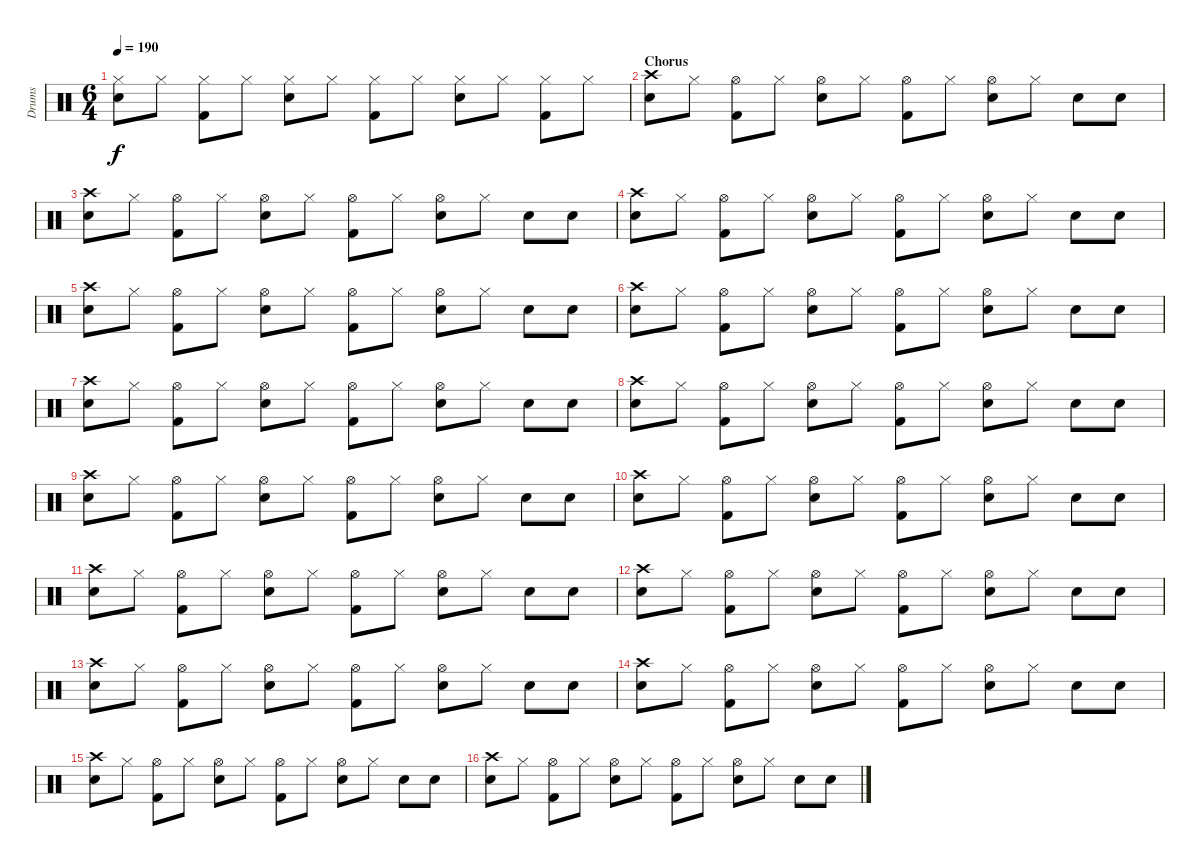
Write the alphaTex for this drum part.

\track ("Drums" "Drums") {instrument percussion}
\staff {score}
\articulation defaults
\ts (6 4)
\tempo 190
\clef neutral
\ks c
("Hi-Hat (closed)" "Snare (hit) 2").8{dy f} "Hi-Hat (closed)".8 ("Hi-Hat (closed)" "Kick (hit) 2").8 "Hi-Hat (closed)".8 ("Hi-Hat (closed)" "Snare (hit) 2").8 "Hi-Hat (closed)".8 ("Hi-Hat (closed)" "Kick (hit) 2").8 "Hi-Hat (closed)".8 ("Hi-Hat (closed)" "Snare (hit) 2").8 "Hi-Hat (closed)".8 ("Hi-Hat (closed)" "Kick (hit) 2").8 "Hi-Hat (closed)".8 |
\section ("" "Chorus")
("Crash high (hit)" "Snare (hit) 2").8 "Hi-Hat (closed)".8 ("Hi-Hat (open)" "Kick (hit) 2").8 "Hi-Hat (closed)".8 ("Hi-Hat (open)" "Snare (hit) 2").8 "Hi-Hat (closed)".8 ("Hi-Hat (open)" "Kick (hit) 2").8 "Hi-Hat (closed)".8 ("Hi-Hat (open)" "Snare (hit) 2").8 "Hi-Hat (closed)".8 "Snare (hit) 2".8 "Snare (hit) 2".8 |
("Crash high (hit)" "Snare (hit) 2").8 "Hi-Hat (closed)".8 ("Hi-Hat (open)" "Kick (hit) 2").8 "Hi-Hat (closed)".8 ("Hi-Hat (open)" "Snare (hit) 2").8 "Hi-Hat (closed)".8 ("Hi-Hat (open)" "Kick (hit) 2").8 "Hi-Hat (closed)".8 ("Hi-Hat (open)" "Snare (hit) 2").8 "Hi-Hat (closed)".8 "Snare (hit) 2".8 "Snare (hit) 2".8 |
("Crash high (hit)" "Snare (hit) 2").8 "Hi-Hat (closed)".8 ("Hi-Hat (open)" "Kick (hit) 2").8 "Hi-Hat (closed)".8 ("Hi-Hat (open)" "Snare (hit) 2").8 "Hi-Hat (closed)".8 ("Hi-Hat (open)" "Kick (hit) 2").8 "Hi-Hat (closed)".8 ("Hi-Hat (open)" "Snare (hit) 2").8 "Hi-Hat (closed)".8 "Snare (hit) 2".8 "Snare (hit) 2".8 |
("Crash high (hit)" "Snare (hit) 2").8 "Hi-Hat (closed)".8 ("Hi-Hat (open)" "Kick (hit) 2").8 "Hi-Hat (closed)".8 ("Hi-Hat (open)" "Snare (hit) 2").8 "Hi-Hat (closed)".8 ("Hi-Hat (open)" "Kick (hit) 2").8 "Hi-Hat (closed)".8 ("Hi-Hat (open)" "Snare (hit) 2").8 "Hi-Hat (closed)".8 "Snare (hit) 2".8 "Snare (hit) 2".8 |
("Crash high (hit)" "Snare (hit) 2").8 "Hi-Hat (closed)".8 ("Hi-Hat (open)" "Kick (hit) 2").8 "Hi-Hat (closed)".8 ("Hi-Hat (open)" "Snare (hit) 2").8 "Hi-Hat (closed)".8 ("Hi-Hat (open)" "Kick (hit) 2").8 "Hi-Hat (closed)".8 ("Hi-Hat (open)" "Snare (hit) 2").8 "Hi-Hat (closed)".8 "Snare (hit) 2".8 "Snare (hit) 2".8 |
("Crash high (hit)" "Snare (hit) 2").8 "Hi-Hat (closed)".8 ("Hi-Hat (open)" "Kick (hit) 2").8 "Hi-Hat (closed)".8 ("Hi-Hat (open)" "Snare (hit) 2").8 "Hi-Hat (closed)".8 ("Hi-Hat (open)" "Kick (hit) 2").8 "Hi-Hat (closed)".8 ("Hi-Hat (open)" "Snare (hit) 2").8 "Hi-Hat (closed)".8 "Snare (hit) 2".8 "Snare (hit) 2".8 |
("Crash high (hit)" "Snare (hit) 2").8 "Hi-Hat (closed)".8 ("Hi-Hat (open)" "Kick (hit) 2").8 "Hi-Hat (closed)".8 ("Hi-Hat (open)" "Snare (hit) 2").8 "Hi-Hat (closed)".8 ("Hi-Hat (open)" "Kick (hit) 2").8 "Hi-Hat (closed)".8 ("Hi-Hat (open)" "Snare (hit) 2").8 "Hi-Hat (closed)".8 "Snare (hit) 2".8 "Snare (hit) 2".8 |
("Crash high (hit)" "Snare (hit) 2").8 "Hi-Hat (closed)".8 ("Hi-Hat (open)" "Kick (hit) 2").8 "Hi-Hat (closed)".8 ("Hi-Hat (open)" "Snare (hit) 2").8 "Hi-Hat (closed)".8 ("Hi-Hat (open)" "Kick (hit) 2").8 "Hi-Hat (closed)".8 ("Hi-Hat (open)" "Snare (hit) 2").8 "Hi-Hat (closed)".8 "Snare (hit) 2".8 "Snare (hit) 2".8 |
("Crash high (hit)" "Snare (hit) 2").8 "Hi-Hat (closed)".8 ("Hi-Hat (open)" "Kick (hit) 2").8 "Hi-Hat (closed)".8 ("Hi-Hat (open)" "Snare (hit) 2").8 "Hi-Hat (closed)".8 ("Hi-Hat (open)" "Kick (hit) 2").8 "Hi-Hat (closed)".8 ("Hi-Hat (open)" "Snare (hit) 2").8 "Hi-Hat (closed)".8 "Snare (hit) 2".8 "Snare (hit) 2".8 |
("Crash high (hit)" "Snare (hit) 2").8 "Hi-Hat (closed)".8 ("Hi-Hat (open)" "Kick (hit) 2").8 "Hi-Hat (closed)".8 ("Hi-Hat (open)" "Snare (hit) 2").8 "Hi-Hat (closed)".8 ("Hi-Hat (open)" "Kick (hit) 2").8 "Hi-Hat (closed)".8 ("Hi-Hat (open)" "Snare (hit) 2").8 "Hi-Hat (closed)".8 "Snare (hit) 2".8 "Snare (hit) 2".8 |
("Crash high (hit)" "Snare (hit) 2").8 "Hi-Hat (closed)".8 ("Hi-Hat (open)" "Kick (hit) 2").8 "Hi-Hat (closed)".8 ("Hi-Hat (open)" "Snare (hit) 2").8 "Hi-Hat (closed)".8 ("Hi-Hat (open)" "Kick (hit) 2").8 "Hi-Hat (closed)".8 ("Hi-Hat (open)" "Snare (hit) 2").8 "Hi-Hat (closed)".8 "Snare (hit) 2".8 "Snare (hit) 2".8 |
("Crash high (hit)" "Snare (hit) 2").8 "Hi-Hat (closed)".8 ("Hi-Hat (open)" "Kick (hit) 2").8 "Hi-Hat (closed)".8 ("Hi-Hat (open)" "Snare (hit) 2").8 "Hi-Hat (closed)".8 ("Hi-Hat (open)" "Kick (hit) 2").8 "Hi-Hat (closed)".8 ("Hi-Hat (open)" "Snare (hit) 2").8 "Hi-Hat (closed)".8 "Snare (hit) 2".8 "Snare (hit) 2".8 |
("Crash high (hit)" "Snare (hit) 2").8 "Hi-Hat (closed)".8 ("Hi-Hat (open)" "Kick (hit) 2").8 "Hi-Hat (closed)".8 ("Hi-Hat (open)" "Snare (hit) 2").8 "Hi-Hat (closed)".8 ("Hi-Hat (open)" "Kick (hit) 2").8 "Hi-Hat (closed)".8 ("Hi-Hat (open)" "Snare (hit) 2").8 "Hi-Hat (closed)".8 "Snare (hit) 2".8 "Snare (hit) 2".8 |
("Crash high (hit)" "Snare (hit) 2").8 "Hi-Hat (closed)".8 ("Hi-Hat (open)" "Kick (hit) 2").8 "Hi-Hat (closed)".8 ("Hi-Hat (open)" "Snare (hit) 2").8 "Hi-Hat (closed)".8 ("Hi-Hat (open)" "Kick (hit) 2").8 "Hi-Hat (closed)".8 ("Hi-Hat (open)" "Snare (hit) 2").8 "Hi-Hat (closed)".8 "Snare (hit) 2".8 "Snare (hit) 2".8 |
("Crash high (hit)" "Snare (hit) 2").8 "Hi-Hat (closed)".8 ("Hi-Hat (open)" "Kick (hit) 2").8 "Hi-Hat (closed)".8 ("Hi-Hat (open)" "Snare (hit) 2").8 "Hi-Hat (closed)".8 ("Hi-Hat (open)" "Kick (hit) 2").8 "Hi-Hat (closed)".8 ("Hi-Hat (open)" "Snare (hit) 2").8 "Hi-Hat (closed)".8 "Snare (hit) 2".8 "Snare (hit) 2".8
